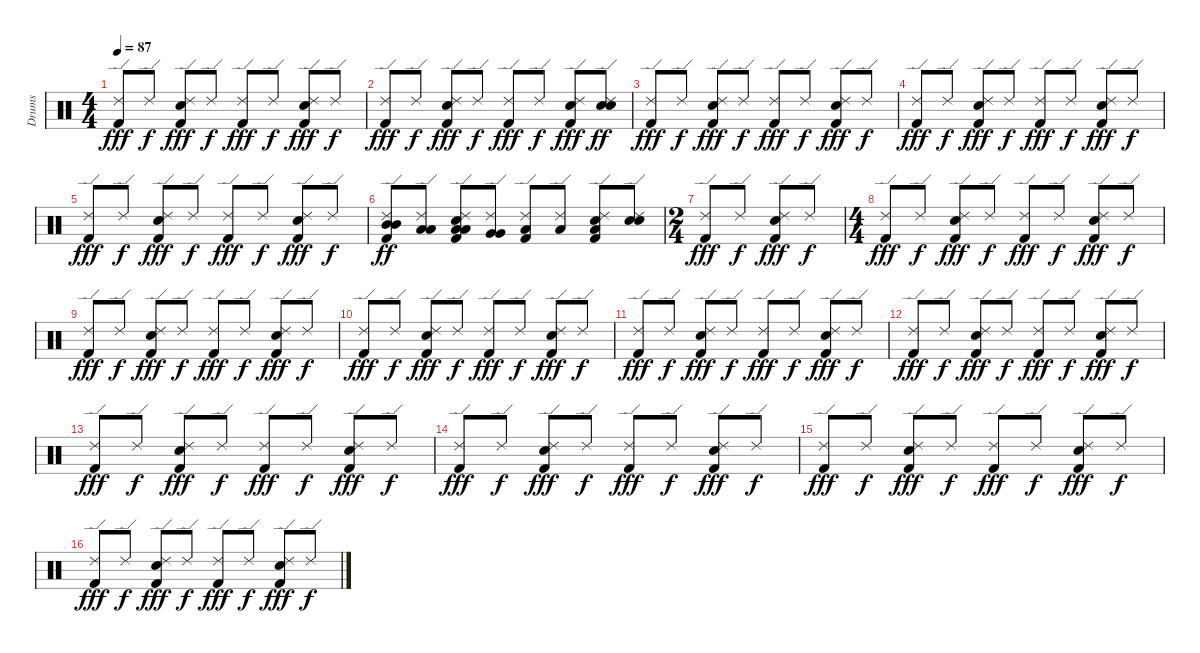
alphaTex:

\track ("Drums" "Drums") {instrument percussion}
\staff {score}
\articulation defaults
\ts (4 4)
\tempo 87
\clef neutral
\ks c
("Kick (hit) 2" "Ride (edge) 2").8{dy fff} "Ride (edge) 2".8{dy f} ("Electric Snare (hit)" "Kick (hit) 2" "Ride (edge) 2").8{dy fff} "Ride (edge) 2".8{dy f} ("Kick (hit) 2" "Ride (edge) 2").8{dy fff} "Ride (edge) 2".8{dy f} ("Electric Snare (hit)" "Kick (hit) 2" "Ride (edge) 2").8{dy fff} "Ride (edge) 2".8{dy f} |
("Kick (hit) 2" "Ride (edge) 2").8{dy fff} "Ride (edge) 2".8{dy f} ("Electric Snare (hit)" "Kick (hit) 2" "Ride (edge) 2").8{dy fff} "Ride (edge) 2".8{dy f} ("Kick (hit) 2" "Ride (edge) 2").8{dy fff} "Ride (edge) 2".8{dy f} ("Electric Snare (hit)" "Kick (hit) 2" "Ride (edge) 2").8{dy fff} ("Electric Snare (hit)" "Ride (edge) 2" "Electric Snare (hit)").8{dy ff} |
("Kick (hit) 2" "Ride (edge) 2").8{dy fff} "Ride (edge) 2".8{dy f} ("Electric Snare (hit)" "Kick (hit) 2" "Ride (edge) 2").8{dy fff} "Ride (edge) 2".8{dy f} ("Kick (hit) 2" "Ride (edge) 2").8{dy fff} "Ride (edge) 2".8{dy f} ("Electric Snare (hit)" "Kick (hit) 2" "Ride (edge) 2").8{dy fff} "Ride (edge) 2".8{dy f} |
("Kick (hit) 2" "Ride (edge) 2").8{dy fff} "Ride (edge) 2".8{dy f} ("Electric Snare (hit)" "Kick (hit) 2" "Ride (edge) 2").8{dy fff} "Ride (edge) 2".8{dy f} ("Kick (hit) 2" "Ride (edge) 2").8{dy fff} "Ride (edge) 2".8{dy f} ("Electric Snare (hit)" "Kick (hit) 2" "Ride (edge) 2").8{dy fff} "Ride (edge) 2".8{dy f} |
("Kick (hit) 2" "Ride (edge) 2").8{dy fff} "Ride (edge) 2".8{dy f} ("Electric Snare (hit)" "Kick (hit) 2" "Ride (edge) 2").8{dy fff} "Ride (edge) 2".8{dy f} ("Kick (hit) 2" "Ride (edge) 2").8{dy fff} "Ride (edge) 2".8{dy f} ("Electric Snare (hit)" "Kick (hit) 2" "Ride (edge) 2").8{dy fff} "Ride (edge) 2".8{dy f} |
("Kick (hit) 2" "Ride (edge) 2" "Mid Tom (hit)" "Mid Tom (hit)").8{dy ff} ("Ride (edge) 2" "Low Tom (hit)" "Low Tom (hit)").8 ("Electric Snare (hit)" "Kick (hit) 2" "Ride (edge) 2" "Low Tom (hit)" "Low Tom (hit)").8 ("Ride (edge) 2" "Very Low Tom (hit)" "Very Low Tom (hit)").8 ("Kick (hit) 2" "Ride (edge) 2" "Low Floor Tom (hit)").8 ("Ride (edge) 2" "Low Floor Tom (hit)").8 ("Electric Snare (hit)" "Kick (hit) 2" "Ride (edge) 2" "Low Floor Tom (hit)").8 ("Electric Snare (hit)" "Ride (edge) 2" "Electric Snare (hit)").8 |
\ts (2 4)
("Kick (hit) 2" "Ride (edge) 2").8{dy fff} "Ride (edge) 2".8{dy f} ("Electric Snare (hit)" "Kick (hit) 2" "Ride (edge) 2").8{dy fff} "Ride (edge) 2".8{dy f} |
\ts (4 4)
("Kick (hit) 2" "Ride (edge) 2").8{dy fff} "Ride (edge) 2".8{dy f} ("Electric Snare (hit)" "Kick (hit) 2" "Ride (edge) 2").8{dy fff} "Ride (edge) 2".8{dy f} ("Kick (hit) 2" "Ride (edge) 2").8{dy fff} "Ride (edge) 2".8{dy f} ("Electric Snare (hit)" "Kick (hit) 2" "Ride (edge) 2").8{dy fff} "Ride (edge) 2".8{dy f} |
("Kick (hit) 2" "Ride (edge) 2").8{dy fff} "Ride (edge) 2".8{dy f} ("Electric Snare (hit)" "Kick (hit) 2" "Ride (edge) 2").8{dy fff} "Ride (edge) 2".8{dy f} ("Kick (hit) 2" "Ride (edge) 2").8{dy fff} "Ride (edge) 2".8{dy f} ("Electric Snare (hit)" "Kick (hit) 2" "Ride (edge) 2").8{dy fff} "Ride (edge) 2".8{dy f} |
("Kick (hit) 2" "Ride (edge) 2").8{dy fff} "Ride (edge) 2".8{dy f} ("Electric Snare (hit)" "Kick (hit) 2" "Ride (edge) 2").8{dy fff} "Ride (edge) 2".8{dy f} ("Kick (hit) 2" "Ride (edge) 2").8{dy fff} "Ride (edge) 2".8{dy f} ("Electric Snare (hit)" "Kick (hit) 2" "Ride (edge) 2").8{dy fff} "Ride (edge) 2".8{dy f} |
("Kick (hit) 2" "Ride (edge) 2").8{dy fff} "Ride (edge) 2".8{dy f} ("Electric Snare (hit)" "Kick (hit) 2" "Ride (edge) 2").8{dy fff} "Ride (edge) 2".8{dy f} ("Kick (hit) 2" "Ride (edge) 2").8{dy fff} "Ride (edge) 2".8{dy f} ("Electric Snare (hit)" "Kick (hit) 2" "Ride (edge) 2").8{dy fff} "Ride (edge) 2".8{dy f} |
("Kick (hit) 2" "Ride (edge) 2").8{dy fff} "Ride (edge) 2".8{dy f} ("Electric Snare (hit)" "Kick (hit) 2" "Ride (edge) 2").8{dy fff} "Ride (edge) 2".8{dy f} ("Kick (hit) 2" "Ride (edge) 2").8{dy fff} "Ride (edge) 2".8{dy f} ("Electric Snare (hit)" "Kick (hit) 2" "Ride (edge) 2").8{dy fff} "Ride (edge) 2".8{dy f} |
("Kick (hit) 2" "Ride (edge) 2").8{dy fff} "Ride (edge) 2".8{dy f} ("Electric Snare (hit)" "Kick (hit) 2" "Ride (edge) 2").8{dy fff} "Ride (edge) 2".8{dy f} ("Kick (hit) 2" "Ride (edge) 2").8{dy fff} "Ride (edge) 2".8{dy f} ("Electric Snare (hit)" "Kick (hit) 2" "Ride (edge) 2").8{dy fff} "Ride (edge) 2".8{dy f} |
("Kick (hit) 2" "Ride (edge) 2").8{dy fff} "Ride (edge) 2".8{dy f} ("Electric Snare (hit)" "Kick (hit) 2" "Ride (edge) 2").8{dy fff} "Ride (edge) 2".8{dy f} ("Kick (hit) 2" "Ride (edge) 2").8{dy fff} "Ride (edge) 2".8{dy f} ("Electric Snare (hit)" "Kick (hit) 2" "Ride (edge) 2").8{dy fff} "Ride (edge) 2".8{dy f} |
("Kick (hit) 2" "Ride (edge) 2").8{dy fff} "Ride (edge) 2".8{dy f} ("Electric Snare (hit)" "Kick (hit) 2" "Ride (edge) 2").8{dy fff} "Ride (edge) 2".8{dy f} ("Kick (hit) 2" "Ride (edge) 2").8{dy fff} "Ride (edge) 2".8{dy f} ("Electric Snare (hit)" "Kick (hit) 2" "Ride (edge) 2").8{dy fff} "Ride (edge) 2".8{dy f} |
("Kick (hit) 2" "Ride (edge) 2").8{dy fff} "Ride (edge) 2".8{dy f} ("Electric Snare (hit)" "Kick (hit) 2" "Ride (edge) 2").8{dy fff} "Ride (edge) 2".8{dy f} ("Kick (hit) 2" "Ride (edge) 2").8{dy fff} "Ride (edge) 2".8{dy f} ("Electric Snare (hit)" "Kick (hit) 2" "Ride (edge) 2").8{dy fff} "Ride (edge) 2".8{dy f}
